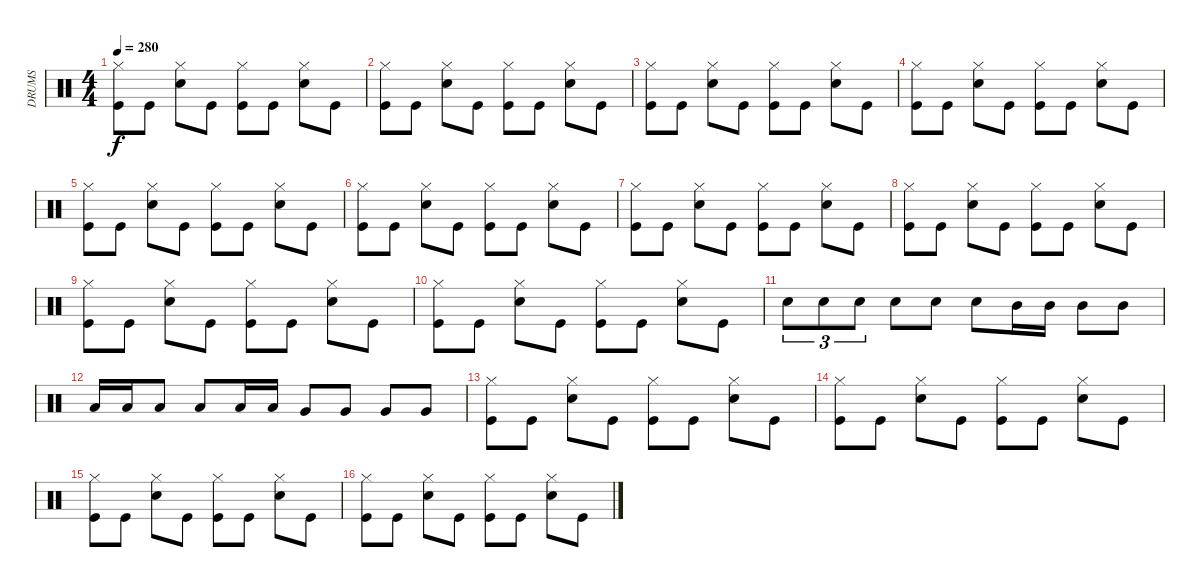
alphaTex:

\track ("DRUMS" "DRUMS") {instrument percussion}
\staff {score}
\articulation defaults
\ts (4 4)
\tempo 280
\clef neutral
\ks c
("Hi-Hat (closed)" "Kick (hit)").8{dy f} "Kick (hit)".8 ("Hi-Hat (closed)" "Snare (hit) 2").8 "Kick (hit)".8 ("Hi-Hat (closed)" "Kick (hit)").8 "Kick (hit)".8 ("Hi-Hat (closed)" "Snare (hit) 2").8 "Kick (hit)".8 |
("Hi-Hat (closed)" "Kick (hit)").8 "Kick (hit)".8 ("Hi-Hat (closed)" "Snare (hit) 2").8 "Kick (hit)".8 ("Hi-Hat (closed)" "Kick (hit)").8 "Kick (hit)".8 ("Hi-Hat (closed)" "Snare (hit) 2").8 "Kick (hit)".8 |
("Hi-Hat (closed)" "Kick (hit)").8 "Kick (hit)".8 ("Hi-Hat (closed)" "Snare (hit) 2").8 "Kick (hit)".8 ("Hi-Hat (closed)" "Kick (hit)").8 "Kick (hit)".8 ("Hi-Hat (closed)" "Snare (hit) 2").8 "Kick (hit)".8 |
("Hi-Hat (closed)" "Kick (hit)").8 "Kick (hit)".8 ("Hi-Hat (closed)" "Snare (hit) 2").8 "Kick (hit)".8 ("Hi-Hat (closed)" "Kick (hit)").8 "Kick (hit)".8 ("Hi-Hat (closed)" "Snare (hit) 2").8 "Kick (hit)".8 |
("Hi-Hat (closed)" "Kick (hit)").8 "Kick (hit)".8 ("Hi-Hat (closed)" "Snare (hit) 2").8 "Kick (hit)".8 ("Hi-Hat (closed)" "Kick (hit)").8 "Kick (hit)".8 ("Hi-Hat (closed)" "Snare (hit) 2").8 "Kick (hit)".8 |
("Hi-Hat (closed)" "Kick (hit)").8 "Kick (hit)".8 ("Hi-Hat (closed)" "Snare (hit) 2").8 "Kick (hit)".8 ("Hi-Hat (closed)" "Kick (hit)").8 "Kick (hit)".8 ("Hi-Hat (closed)" "Snare (hit) 2").8 "Kick (hit)".8 |
("Hi-Hat (closed)" "Kick (hit)").8 "Kick (hit)".8 ("Hi-Hat (closed)" "Snare (hit) 2").8 "Kick (hit)".8 ("Hi-Hat (closed)" "Kick (hit)").8 "Kick (hit)".8 ("Hi-Hat (closed)" "Snare (hit) 2").8 "Kick (hit)".8 |
("Hi-Hat (closed)" "Kick (hit)").8 "Kick (hit)".8 ("Hi-Hat (closed)" "Snare (hit) 2").8 "Kick (hit)".8 ("Hi-Hat (closed)" "Kick (hit)").8 "Kick (hit)".8 ("Hi-Hat (closed)" "Snare (hit) 2").8 "Kick (hit)".8 |
("Hi-Hat (closed)" "Kick (hit)").8 "Kick (hit)".8 ("Hi-Hat (closed)" "Snare (hit) 2").8 "Kick (hit)".8 ("Hi-Hat (closed)" "Kick (hit)").8 "Kick (hit)".8 ("Hi-Hat (closed)" "Snare (hit) 2").8 "Kick (hit)".8 |
("Hi-Hat (closed)" "Kick (hit)").8 "Kick (hit)".8 ("Hi-Hat (closed)" "Snare (hit) 2").8 "Kick (hit)".8 ("Hi-Hat (closed)" "Kick (hit)").8 "Kick (hit)".8 ("Hi-Hat (closed)" "Snare (hit) 2").8 "Kick (hit)".8 |
"Snare (hit) 2".8{tu (3 2)} "Snare (hit) 2".8{tu (3 2)} "Snare (hit) 2".8{tu (3 2)} "Snare (hit) 2".8 "Snare (hit) 2".8 "Snare (hit) 2".8 "Mid Tom (hit)".16 "Mid Tom (hit)".16 "Mid Tom (hit)".8 "Mid Tom (hit)".8 |
"Low Tom (hit)".16 "Low Tom (hit)".16 "Low Tom (hit)".8 "Low Tom (hit)".8 "Low Tom (hit)".16 "Low Tom (hit)".16 "Very Low Tom (hit)".8 "Very Low Tom (hit)".8 "Very Low Tom (hit)".8 "Very Low Tom (hit)".8 |
("Hi-Hat (closed)" "Kick (hit)").8 "Kick (hit)".8 ("Hi-Hat (closed)" "Snare (hit) 2").8 "Kick (hit)".8 ("Hi-Hat (closed)" "Kick (hit)").8 "Kick (hit)".8 ("Hi-Hat (closed)" "Snare (hit) 2").8 "Kick (hit)".8 |
("Hi-Hat (closed)" "Kick (hit)").8 "Kick (hit)".8 ("Hi-Hat (closed)" "Snare (hit) 2").8 "Kick (hit)".8 ("Hi-Hat (closed)" "Kick (hit)").8 "Kick (hit)".8 ("Hi-Hat (closed)" "Snare (hit) 2").8 "Kick (hit)".8 |
("Hi-Hat (closed)" "Kick (hit)").8 "Kick (hit)".8 ("Hi-Hat (closed)" "Snare (hit) 2").8 "Kick (hit)".8 ("Hi-Hat (closed)" "Kick (hit)").8 "Kick (hit)".8 ("Hi-Hat (closed)" "Snare (hit) 2").8 "Kick (hit)".8 |
("Hi-Hat (closed)" "Kick (hit)").8 "Kick (hit)".8 ("Hi-Hat (closed)" "Snare (hit) 2").8 "Kick (hit)".8 ("Hi-Hat (closed)" "Kick (hit)").8 "Kick (hit)".8 ("Hi-Hat (closed)" "Snare (hit) 2").8 "Kick (hit)".8
